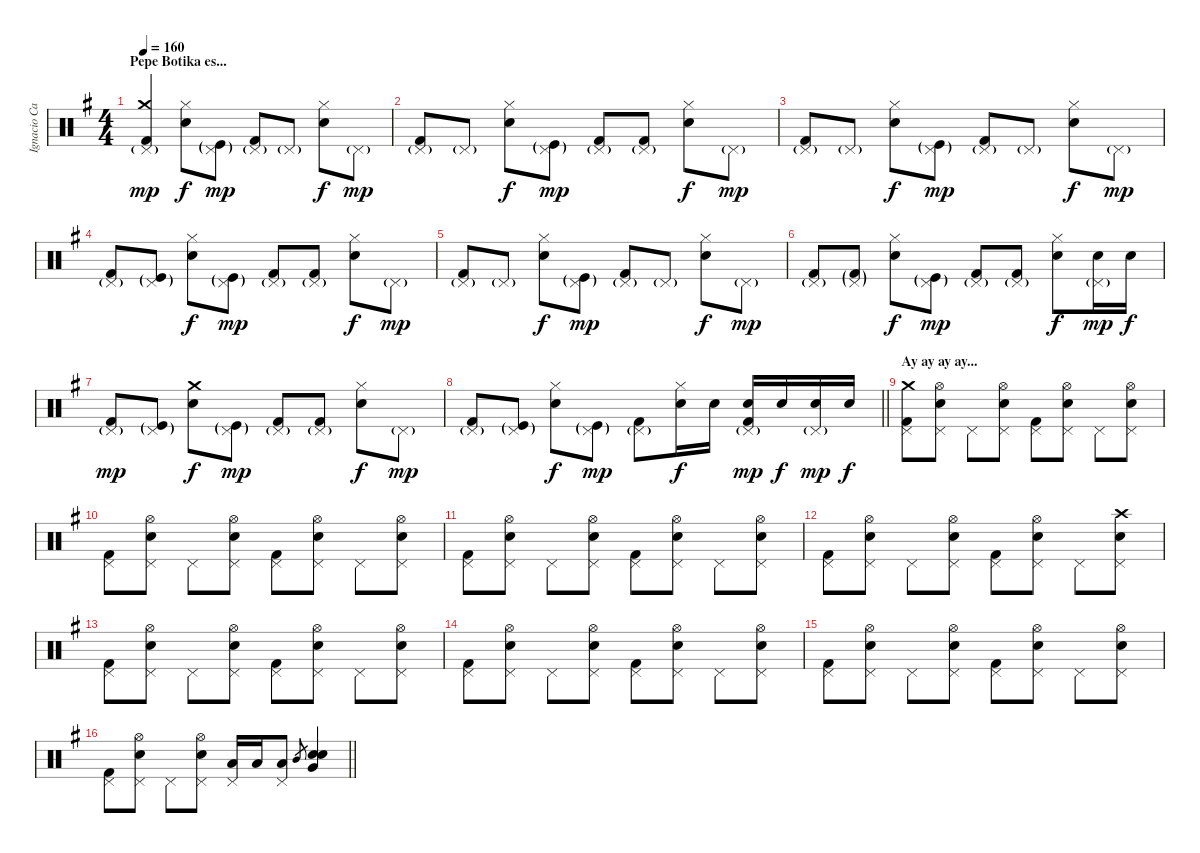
\track ("Ignacio Cantera - Batería" "Ignacio Ca") {instrument percussion}
\staff {score}
\articulation defaults
\ts (4 4)
\section ("" "Pepe Botika es...")
\tempo 160
\clef neutral
\ks eminor
("Pedal Hi-Hat (hit)"{g} "Crash medium (hit)" "Kick (hit) 2").4{dy mp} ("Hi-Hat (closed)" "Snare (hit) 2").8{dy f} ("Pedal Hi-Hat (hit)"{g} "Kick (hit)"{g}).8{dy mp} ("Pedal Hi-Hat (hit)"{g} "Kick (hit) 2").8 "Pedal Hi-Hat (hit)"{g}.8 ("Hi-Hat (closed)" "Snare (hit) 2").8{dy f} "Pedal Hi-Hat (hit)"{g}.8{dy mp} |
("Pedal Hi-Hat (hit)"{g} "Kick (hit) 2").8 "Pedal Hi-Hat (hit)"{g}.8 ("Hi-Hat (closed)" "Snare (hit) 2").8{dy f} ("Pedal Hi-Hat (hit)"{g} "Kick (hit)"{g}).8{dy mp} ("Pedal Hi-Hat (hit)"{g} "Kick (hit) 2").8 ("Pedal Hi-Hat (hit)"{g} "Kick (hit) 2").8 ("Hi-Hat (closed)" "Snare (hit) 2").8{dy f} "Pedal Hi-Hat (hit)"{g}.8{dy mp} |
("Pedal Hi-Hat (hit)"{g} "Kick (hit) 2").8 "Pedal Hi-Hat (hit)"{g}.8 ("Hi-Hat (closed)" "Snare (hit) 2").8{dy f} ("Pedal Hi-Hat (hit)"{g} "Kick (hit)"{g}).8{dy mp} ("Pedal Hi-Hat (hit)"{g} "Kick (hit) 2").8 "Pedal Hi-Hat (hit)"{g}.8 ("Hi-Hat (closed)" "Snare (hit) 2").8{dy f} "Pedal Hi-Hat (hit)"{g}.8{dy mp} |
("Pedal Hi-Hat (hit)"{g} "Kick (hit) 2").8 ("Pedal Hi-Hat (hit)"{g} "Kick (hit)"{g}).8 ("Hi-Hat (closed)" "Snare (hit) 2").8{dy f} ("Pedal Hi-Hat (hit)"{g} "Kick (hit)"{g}).8{dy mp} ("Pedal Hi-Hat (hit)"{g} "Kick (hit) 2").8 ("Pedal Hi-Hat (hit)"{g} "Kick (hit) 2").8 ("Hi-Hat (closed)" "Snare (hit) 2").8{dy f} "Pedal Hi-Hat (hit)"{g}.8{dy mp} |
("Pedal Hi-Hat (hit)"{g} "Kick (hit) 2").8 "Pedal Hi-Hat (hit)"{g}.8 ("Hi-Hat (closed)" "Snare (hit) 2").8{dy f} ("Pedal Hi-Hat (hit)"{g} "Kick (hit)"{g}).8{dy mp} ("Pedal Hi-Hat (hit)"{g} "Kick (hit) 2").8 "Pedal Hi-Hat (hit)"{g}.8 ("Hi-Hat (closed)" "Snare (hit) 2").8{dy f} "Pedal Hi-Hat (hit)"{g}.8{dy mp} |
("Pedal Hi-Hat (hit)"{g} "Kick (hit) 2").8 ("Pedal Hi-Hat (hit)"{g} "Kick (hit) 2"{g}).8 ("Hi-Hat (closed)" "Snare (hit) 2").8{dy f} ("Pedal Hi-Hat (hit)"{g} "Kick (hit)"{g}).8{dy mp} ("Pedal Hi-Hat (hit)"{g} "Kick (hit) 2").8 ("Pedal Hi-Hat (hit)"{g} "Kick (hit) 2").8 ("Hi-Hat (closed)" "Snare (hit) 2").8{dy f} ("Pedal Hi-Hat (hit)"{g} "Electric Snare (hit)").16{dy mp} "Electric Snare (hit)".16{dy f} |
("Pedal Hi-Hat (hit)"{g} "Kick (hit) 2").8{dy mp} ("Pedal Hi-Hat (hit)"{g} "Kick (hit)"{g}).8 ("Crash medium (hit)" "Snare (hit) 2").8{dy f} ("Pedal Hi-Hat (hit)"{g} "Kick (hit)"{g}).8{dy mp} ("Pedal Hi-Hat (hit)"{g} "Kick (hit) 2").8 ("Pedal Hi-Hat (hit)"{g} "Kick (hit) 2").8 ("Hi-Hat (closed)" "Snare (hit) 2").8{dy f} "Pedal Hi-Hat (hit)"{g}.8{dy mp} |
\barLineRight lightlight
("Pedal Hi-Hat (hit)"{g} "Kick (hit) 2").8 ("Pedal Hi-Hat (hit)"{g} "Kick (hit)"{g}).8 ("Hi-Hat (closed)" "Snare (hit) 2").8{dy f} ("Pedal Hi-Hat (hit)"{g} "Kick (hit)"{g}).8{dy mp} ("Pedal Hi-Hat (hit)"{g} "Kick (hit) 2").8 ("Hi-Hat (closed)" "Electric Snare (hit)").16{dy f} "Electric Snare (hit)".16 ("Pedal Hi-Hat (hit)"{g} "Electric Snare (hit)" "Kick (hit) 2").16{dy mp} "Electric Snare (hit)".16{dy f} ("Pedal Hi-Hat (hit)"{g} "Electric Snare (hit)").16{dy mp} "Electric Snare (hit)".16{dy f} |
\section ("" "Ay ay ay ay...")
("Pedal Hi-Hat (hit)" "Crash medium (hit)" "Kick (hit) 2").8 ("Pedal Hi-Hat (hit)" "Snare (hit) 2" "Hi-Hat (open)").8 "Pedal Hi-Hat (hit)".8 ("Pedal Hi-Hat (hit)" "Snare (hit) 2" "Hi-Hat (open)").8 ("Pedal Hi-Hat (hit)" "Kick (hit) 2").8 ("Pedal Hi-Hat (hit)" "Snare (hit) 2" "Hi-Hat (open)").8 "Pedal Hi-Hat (hit)".8 ("Pedal Hi-Hat (hit)" "Snare (hit) 2" "Hi-Hat (open)").8 |
("Pedal Hi-Hat (hit)" "Kick (hit) 2").8 ("Pedal Hi-Hat (hit)" "Snare (hit) 2" "Hi-Hat (open)").8 "Pedal Hi-Hat (hit)".8 ("Pedal Hi-Hat (hit)" "Snare (hit) 2" "Hi-Hat (open)").8 ("Pedal Hi-Hat (hit)" "Kick (hit) 2").8 ("Pedal Hi-Hat (hit)" "Snare (hit) 2" "Hi-Hat (open)").8 "Pedal Hi-Hat (hit)".8 ("Pedal Hi-Hat (hit)" "Snare (hit) 2" "Hi-Hat (open)").8 |
("Pedal Hi-Hat (hit)" "Kick (hit) 2").8 ("Pedal Hi-Hat (hit)" "Snare (hit) 2" "Hi-Hat (open)").8 "Pedal Hi-Hat (hit)".8 ("Pedal Hi-Hat (hit)" "Snare (hit) 2" "Hi-Hat (open)").8 ("Pedal Hi-Hat (hit)" "Kick (hit) 2").8 ("Pedal Hi-Hat (hit)" "Snare (hit) 2" "Hi-Hat (open)").8 "Pedal Hi-Hat (hit)".8 ("Pedal Hi-Hat (hit)" "Snare (hit) 2" "Hi-Hat (open)").8 |
("Pedal Hi-Hat (hit)" "Kick (hit) 2").8 ("Pedal Hi-Hat (hit)" "Snare (hit) 2" "Hi-Hat (open)").8 "Pedal Hi-Hat (hit)".8 ("Pedal Hi-Hat (hit)" "Snare (hit) 2" "Hi-Hat (open)").8 ("Pedal Hi-Hat (hit)" "Kick (hit) 2").8 ("Pedal Hi-Hat (hit)" "Snare (hit) 2" "Hi-Hat (open)").8 "Pedal Hi-Hat (hit)".8 ("Pedal Hi-Hat (hit)" "Snare (hit) 2" "Crash high (hit)").8 |
("Pedal Hi-Hat (hit)" "Kick (hit) 2").8 ("Pedal Hi-Hat (hit)" "Snare (hit) 2" "Hi-Hat (open)").8 "Pedal Hi-Hat (hit)".8 ("Pedal Hi-Hat (hit)" "Snare (hit) 2" "Hi-Hat (open)").8 ("Pedal Hi-Hat (hit)" "Kick (hit) 2").8 ("Pedal Hi-Hat (hit)" "Snare (hit) 2" "Hi-Hat (open)").8 "Pedal Hi-Hat (hit)".8 ("Pedal Hi-Hat (hit)" "Snare (hit) 2" "Hi-Hat (open)").8 |
("Pedal Hi-Hat (hit)" "Kick (hit) 2").8 ("Pedal Hi-Hat (hit)" "Snare (hit) 2" "Hi-Hat (open)").8 "Pedal Hi-Hat (hit)".8 ("Pedal Hi-Hat (hit)" "Snare (hit) 2" "Hi-Hat (open)").8 ("Pedal Hi-Hat (hit)" "Kick (hit) 2").8 ("Pedal Hi-Hat (hit)" "Snare (hit) 2" "Hi-Hat (open)").8 "Pedal Hi-Hat (hit)".8 ("Pedal Hi-Hat (hit)" "Snare (hit) 2" "Hi-Hat (open)").8 |
("Pedal Hi-Hat (hit)" "Kick (hit) 2").8 ("Pedal Hi-Hat (hit)" "Snare (hit) 2" "Hi-Hat (open)").8 "Pedal Hi-Hat (hit)".8 ("Pedal Hi-Hat (hit)" "Snare (hit) 2" "Hi-Hat (open)").8 ("Pedal Hi-Hat (hit)" "Kick (hit) 2").8 ("Pedal Hi-Hat (hit)" "Snare (hit) 2" "Hi-Hat (open)").8 "Pedal Hi-Hat (hit)".8 ("Pedal Hi-Hat (hit)" "Snare (hit) 2" "Hi-Hat (open)").8 |
\barLineRight lightlight
("Pedal Hi-Hat (hit)" "Kick (hit) 2").8 ("Pedal Hi-Hat (hit)" "Snare (hit) 2" "Hi-Hat (open)").8 "Pedal Hi-Hat (hit)".8 ("Pedal Hi-Hat (hit)" "Snare (hit) 2" "Hi-Hat (open)").8 ("Pedal Hi-Hat (hit)" "Low Tom (hit)").16 "Low Tom (hit)".16 ("Pedal Hi-Hat (hit)" "Low Tom (hit)").8 "Mid Tom (hit)".8{gr} ("Electric Snare (hit)" "Very Low Tom (hit)" "Snare (hit) 2").4
